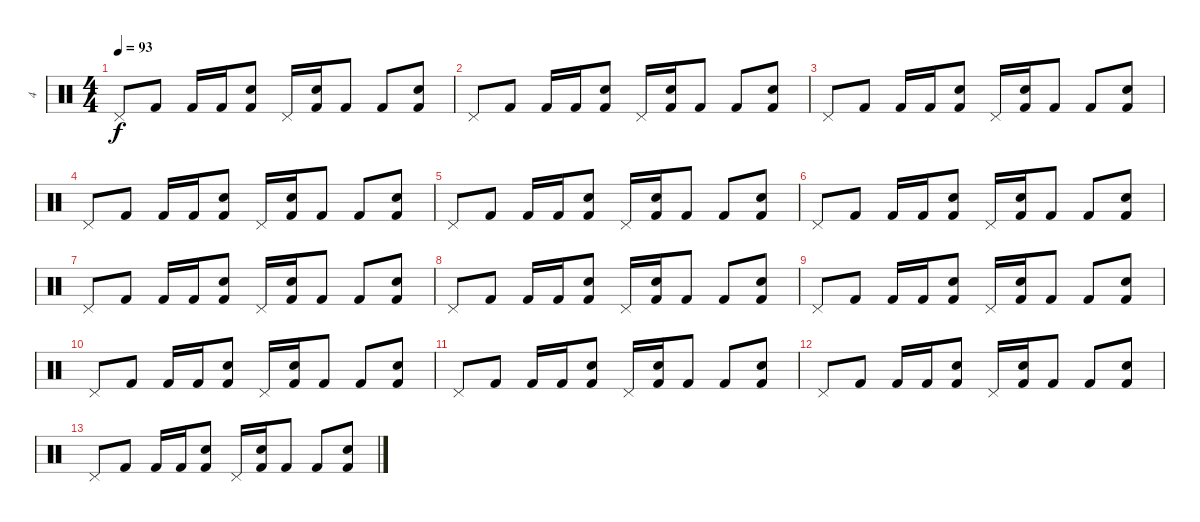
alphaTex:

\track ("4" "4") {instrument percussion}
\staff {score}
\articulation defaults
\ts (4 4)
\tempo 93
\clef neutral
\ks c "Pedal Hi-Hat (hit)".8{dy f} "Kick (hit) 2".8 "Kick (hit) 2".16 "Kick (hit) 2".16
("Kick (hit) 2" "Electric Snare (hit)").8 "Pedal Hi-Hat (hit)".16 ("Kick (hit) 2" "Electric Snare (hit)").16 "Kick (hit) 2".8 "Kick (hit) 2".8 ("Kick (hit) 2" "Electric Snare (hit)").8 |
"Pedal Hi-Hat (hit)".8 "Kick (hit) 2".8 "Kick (hit) 2".16 "Kick (hit) 2".16 ("Kick (hit) 2" "Electric Snare (hit)").8 "Pedal Hi-Hat (hit)".16 ("Kick (hit) 2" "Electric Snare (hit)").16 "Kick (hit) 2".8 "Kick (hit) 2".8 ("Kick (hit) 2" "Electric Snare (hit)").8 |
"Pedal Hi-Hat (hit)".8 "Kick (hit) 2".8 "Kick (hit) 2".16 "Kick (hit) 2".16 ("Kick (hit) 2" "Electric Snare (hit)").8 "Pedal Hi-Hat (hit)".16 ("Kick (hit) 2" "Electric Snare (hit)").16 "Kick (hit) 2".8 "Kick (hit) 2".8 ("Kick (hit) 2" "Electric Snare (hit)").8 |
"Pedal Hi-Hat (hit)".8 "Kick (hit) 2".8 "Kick (hit) 2".16 "Kick (hit) 2".16 ("Kick (hit) 2" "Electric Snare (hit)").8 "Pedal Hi-Hat (hit)".16 ("Kick (hit) 2" "Electric Snare (hit)").16 "Kick (hit) 2".8 "Kick (hit) 2".8 ("Kick (hit) 2" "Electric Snare (hit)").8 |
"Pedal Hi-Hat (hit)".8 "Kick (hit) 2".8 "Kick (hit) 2".16 "Kick (hit) 2".16 ("Kick (hit) 2" "Electric Snare (hit)").8 "Pedal Hi-Hat (hit)".16 ("Kick (hit) 2" "Electric Snare (hit)").16 "Kick (hit) 2".8 "Kick (hit) 2".8 ("Kick (hit) 2" "Electric Snare (hit)").8 |
"Pedal Hi-Hat (hit)".8 "Kick (hit) 2".8 "Kick (hit) 2".16 "Kick (hit) 2".16 ("Kick (hit) 2" "Electric Snare (hit)").8 "Pedal Hi-Hat (hit)".16 ("Kick (hit) 2" "Electric Snare (hit)").16 "Kick (hit) 2".8 "Kick (hit) 2".8 ("Kick (hit) 2" "Electric Snare (hit)").8 |
"Pedal Hi-Hat (hit)".8 "Kick (hit) 2".8 "Kick (hit) 2".16 "Kick (hit) 2".16 ("Kick (hit) 2" "Electric Snare (hit)").8 "Pedal Hi-Hat (hit)".16 ("Kick (hit) 2" "Electric Snare (hit)").16 "Kick (hit) 2".8 "Kick (hit) 2".8{volume 10} ("Kick (hit) 2" "Electric Snare (hit)").8 |
"Pedal Hi-Hat (hit)".8 "Kick (hit) 2".8 "Kick (hit) 2".16 "Kick (hit) 2".16 ("Kick (hit) 2" "Electric Snare (hit)").8{volume 6} "Pedal Hi-Hat (hit)".16 ("Kick (hit) 2" "Electric Snare (hit)").16 "Kick (hit) 2".8 "Kick (hit) 2".8 ("Kick (hit) 2" "Electric Snare (hit)").8{volume 4} |
"Pedal Hi-Hat (hit)".8 "Kick (hit) 2".8 "Kick (hit) 2".16 "Kick (hit) 2".16 ("Kick (hit) 2" "Electric Snare (hit)").8 "Pedal Hi-Hat (hit)".16 ("Kick (hit) 2" "Electric Snare (hit)").16 "Kick (hit) 2".8 "Kick (hit) 2".8 ("Kick (hit) 2" "Electric Snare (hit)").8 |
"Pedal Hi-Hat (hit)".8 "Kick (hit) 2".8 "Kick (hit) 2".16 "Kick (hit) 2".16 ("Kick (hit) 2" "Electric Snare (hit)").8{volume 2} "Pedal Hi-Hat (hit)".16 ("Kick (hit) 2" "Electric Snare (hit)").16 "Kick (hit) 2".8 "Kick (hit) 2".8 ("Kick (hit) 2" "Electric Snare (hit)").8 |
"Pedal Hi-Hat (hit)".8{volume 0} "Kick (hit) 2".8 "Kick (hit) 2".16 "Kick (hit) 2".16 ("Kick (hit) 2" "Electric Snare (hit)").8 "Pedal Hi-Hat (hit)".16 ("Kick (hit) 2" "Electric Snare (hit)").16 "Kick (hit) 2".8 "Kick (hit) 2".8 ("Kick (hit) 2" "Electric Snare (hit)").8 |
"Pedal Hi-Hat (hit)".8 "Kick (hit) 2".8 "Kick (hit) 2".16 "Kick (hit) 2".16 ("Kick (hit) 2" "Electric Snare (hit)").8 "Pedal Hi-Hat (hit)".16 ("Kick (hit) 2" "Electric Snare (hit)").16 "Kick (hit) 2".8 "Kick (hit) 2".8 ("Kick (hit) 2" "Electric Snare (hit)").8 |
"Pedal Hi-Hat (hit)".8 "Kick (hit) 2".8 "Kick (hit) 2".16 "Kick (hit) 2".16 ("Kick (hit) 2" "Electric Snare (hit)").8 "Pedal Hi-Hat (hit)".16 ("Kick (hit) 2" "Electric Snare (hit)").16 "Kick (hit) 2".8 "Kick (hit) 2".8 ("Kick (hit) 2" "Electric Snare (hit)").8
